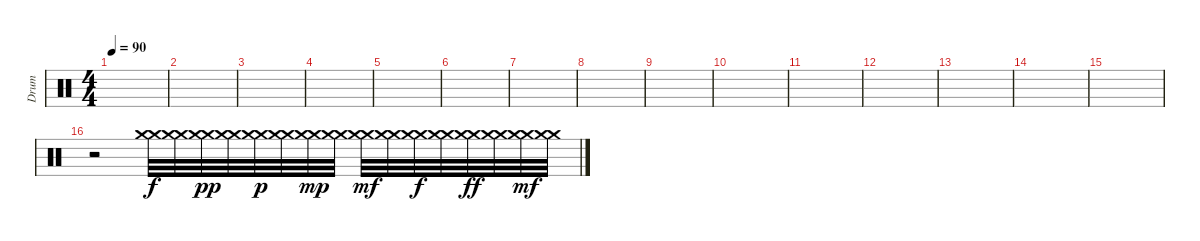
\track ("Drum" "Drum") {instrument percussion}
\staff {score}
\articulation defaults
\ts (4 4)
\tempo 90
\clef neutral
\ks c
|
|
|
|
|
|
|
|
|
|
|
|
|
|
|
r.2 ("Crash medium (hit)" "Crash medium (hit)").32 ("Crash medium (hit)" "Crash medium (hit)").32 ("Crash medium (hit)" "Crash medium (hit)").32{dy pp} ("Crash medium (hit)" "Crash medium (hit)").32 ("Crash medium (hit)" "Crash medium (hit)").32{dy p} ("Crash medium (hit)" "Crash medium (hit)").32 ("Crash medium (hit)" "Crash medium (hit)").32{dy mp} ("Crash medium (hit)" "Crash medium (hit)").32 ("Crash medium (hit)" "Crash medium (hit)").32{dy mf} ("Crash medium (hit)" "Crash medium (hit)").32 ("Crash medium (hit)" "Crash medium (hit)").32{dy f} ("Crash medium (hit)" "Crash medium (hit)").32 ("Crash medium (hit)" "Crash medium (hit)").32{dy ff} ("Crash medium (hit)" "Crash medium (hit)").32 ("Crash medium (hit)" "Crash medium (hit)").32{dy mf} ("Crash medium (hit)" "Crash medium (hit)").32
